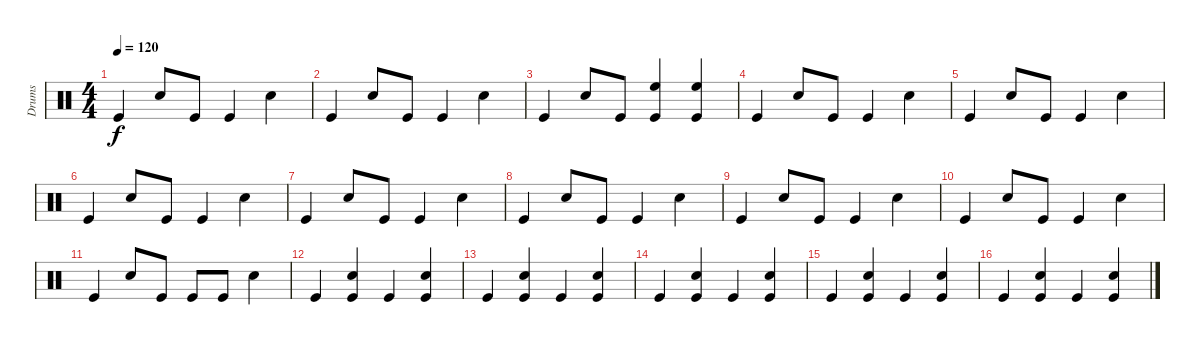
\track ("Drums" "Drums") {instrument percussion}
\staff {score}
\articulation defaults
\ts (4 4)
\tempo 120
\clef neutral
\ks c "Kick (hit)".4{dy f} "Snare (hit) 2".8 "Kick (hit)".8 "Kick (hit)".4 "Snare (hit) 2".4
|
"Kick (hit)".4 "Snare (hit) 2".8 "Kick (hit)".8 "Kick (hit)".4 "Snare (hit) 2".4 |
"Kick (hit)".4 "Snare (hit) 2".8 "Kick (hit)".8 ("High Floor Tom (hit)" "Kick (hit)").4 ("High Floor Tom (hit)" "Kick (hit)").4 |
"Kick (hit)".4 "Snare (hit) 2".8 "Kick (hit)".8 "Kick (hit)".4 "Snare (hit) 2".4 |
"Kick (hit)".4 "Snare (hit) 2".8 "Kick (hit)".8 "Kick (hit)".4 "Snare (hit) 2".4 |
"Kick (hit)".4 "Snare (hit) 2".8 "Kick (hit)".8 "Kick (hit)".4 "Snare (hit) 2".4 |
"Kick (hit)".4 "Snare (hit) 2".8 "Kick (hit)".8 "Kick (hit)".4 "Snare (hit) 2".4 |
"Kick (hit)".4 "Snare (hit) 2".8 "Kick (hit)".8 "Kick (hit)".4 "Snare (hit) 2".4 |
"Kick (hit)".4 "Snare (hit) 2".8 "Kick (hit)".8 "Kick (hit)".4 "Snare (hit) 2".4 |
"Kick (hit)".4 "Snare (hit) 2".8 "Kick (hit)".8 "Kick (hit)".4 "Snare (hit) 2".4 |
"Kick (hit)".4 "Snare (hit) 2".8 "Kick (hit)".8 "Kick (hit)".8 "Kick (hit)".8 "Snare (hit) 2".4 |
"Kick (hit)".4 ("Snare (hit) 2" "Kick (hit)").4 "Kick (hit)".4 ("Snare (hit) 2" "Kick (hit)").4 |
"Kick (hit)".4 ("Snare (hit) 2" "Kick (hit)").4 "Kick (hit)".4 ("Snare (hit) 2" "Kick (hit)").4 |
"Kick (hit)".4 ("Snare (hit) 2" "Kick (hit)").4 "Kick (hit)".4 ("Snare (hit) 2" "Kick (hit)").4 |
"Kick (hit)".4 ("Snare (hit) 2" "Kick (hit)").4 "Kick (hit)".4 ("Snare (hit) 2" "Kick (hit)").4 |
"Kick (hit)".4 ("Snare (hit) 2" "Kick (hit)").4 "Kick (hit)".4 ("Snare (hit) 2" "Kick (hit)").4
